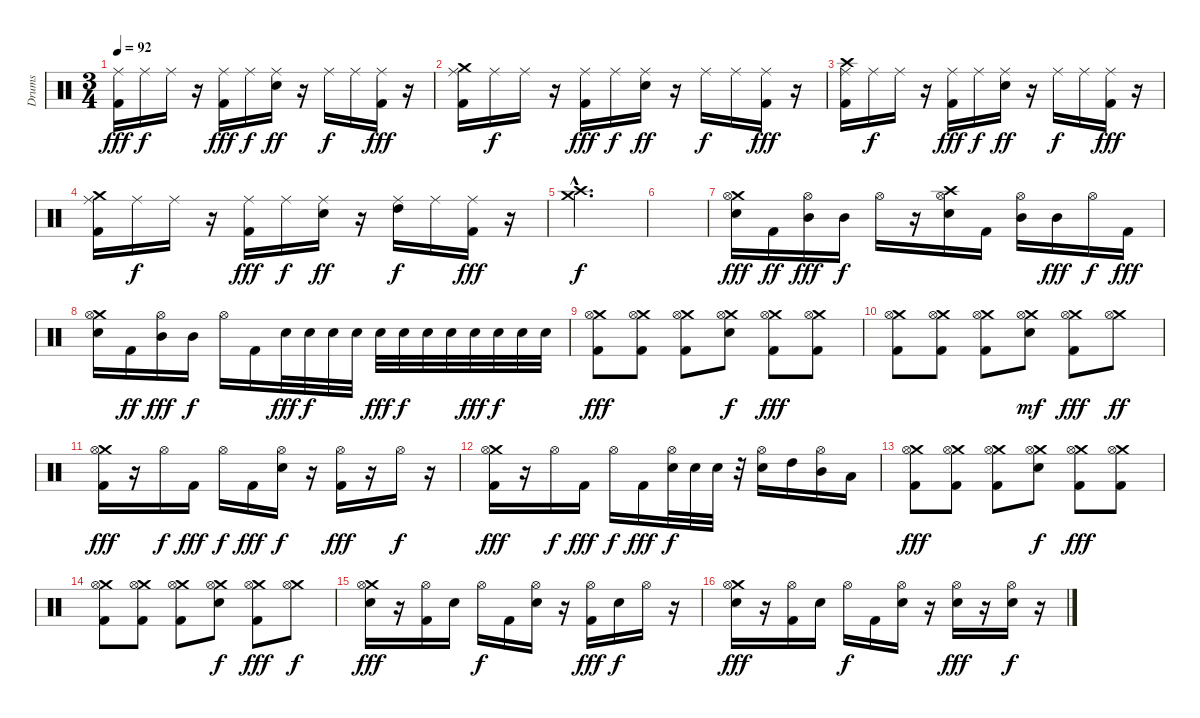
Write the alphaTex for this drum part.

\track ("Drums" "Drums") {instrument percussion}
\staff {score}
\articulation defaults
\ts (3 4)
\tempo 92
\clef neutral
\ks c
("Ride (middle)" "Kick (hit) 2").16{dy fff} "Ride (middle)".16{dy f} "Ride (middle)".16 r.16 ("Ride (middle)" "Kick (hit) 2").16{dy fff} "Ride (middle)".16{dy f} ("Ride (middle)" "Snare (hit) 2").16{dy ff} r.16 "Ride (middle)".16{dy f} "Ride (middle)".16 ("Ride (middle)" "Kick (hit) 2").16{dy fff} r.16 |
("Crash medium (hit)" "Ride (middle)" "Kick (hit) 2").16 "Ride (middle)".16{dy f} "Ride (middle)".16 r.16 ("Ride (middle)" "Kick (hit) 2").16{dy fff} "Ride (middle)".16{dy f} ("Ride (middle)" "Snare (hit) 2").16{dy ff} r.16 "Ride (middle)".16{dy f} "Ride (middle)".16 ("Ride (middle)" "Kick (hit) 2").16{dy fff} r.16 |
("Crash high (hit)" "Ride (middle)" "Kick (hit) 2").16 "Ride (middle)".16{dy f} "Ride (middle)".16 r.16 ("Ride (middle)" "Kick (hit) 2").16{dy fff} "Ride (middle)".16{dy f} ("Ride (middle)" "Snare (hit) 2").16{dy ff} r.16 "Ride (middle)".16{dy f} "Ride (middle)".16 ("Ride (middle)" "Kick (hit) 2").16{dy fff} r.16 |
("Crash medium (hit)" "Ride (middle)" "Kick (hit) 2").16 "Ride (middle)".16{dy f} "Ride (middle)".16 r.16 ("Ride (middle)" "Kick (hit) 2").16{dy fff} "Ride (middle)".16{dy f} ("Ride (middle)" "Snare (hit) 2").16{dy ff} r.16 ("Ride (middle)" "High Tom (hit)").16{dy f} "Ride (middle)".16 ("Ride (middle)" "Kick (hit) 2").16{dy fff} r.16 |
("Crash medium (hit)"{hac} "Crash high (hit)"{hac}).2{d dy f} |
|
("Crash medium (hit)" "Hi-Hat (open)" "Snare (hit) 2").16{dy fff} "Kick (hit) 2".16{dy ff} ("Hi-Hat (open)" "Mid Tom (hit)").16{dy fff} "Mid Tom (hit)".16{dy f} "Hi-Hat (open)".16 r.16 ("Crash high (hit)" "Hi-Hat (open)" "Snare (hit) 2").16 "Kick (hit) 2".16 ("Hi-Hat (open)" "Mid Tom (hit)").16 "Mid Tom (hit)".16{dy fff} "Hi-Hat (open)".16{dy f} "Kick (hit) 2".16{dy fff} |
("Crash medium (hit)" "Hi-Hat (open)" "Snare (hit) 2").16 "Kick (hit) 2".16{dy ff} ("Hi-Hat (open)" "Mid Tom (hit)").16{dy fff} "Mid Tom (hit)".16{dy f} "Hi-Hat (open)".16 "Kick (hit) 2".16 "Snare (hit) 2".32{dy fff} "Snare (hit) 2".32{dy f} "Snare (hit) 2".32 "Snare (hit) 2".32 "Snare (hit) 2".32{dy fff} "Snare (hit) 2".32{dy f} "Snare (hit) 2".32 "Snare (hit) 2".32 "Snare (hit) 2".32{dy fff} "Snare (hit) 2".32{dy f} "Snare (hit) 2".32 "Snare (hit) 2".32 |
("Crash medium (hit)" "Hi-Hat (open)" "Kick (hit) 2").8{dy fff} ("Crash medium (hit)" "Hi-Hat (open)" "Kick (hit) 2").8 ("Crash medium (hit)" "Hi-Hat (open)" "Kick (hit) 2").8 ("Crash medium (hit)" "Hi-Hat (open)" "Snare (hit) 2").8{dy f} ("Crash medium (hit)" "Hi-Hat (open)" "Kick (hit) 2").8{dy fff} ("Crash medium (hit)" "Hi-Hat (open)" "Kick (hit) 2").8 |
("Crash medium (hit)" "Hi-Hat (open)" "Kick (hit) 2").8 ("Crash medium (hit)" "Hi-Hat (open)" "Kick (hit) 2").8 ("Crash medium (hit)" "Hi-Hat (open)" "Kick (hit) 2").8 ("Crash medium (hit)" "Hi-Hat (open)" "Snare (hit) 2").8{dy mf} ("Crash medium (hit)" "Hi-Hat (open)" "Kick (hit) 2").8{dy fff} ("Crash medium (hit)" "Hi-Hat (open)").8{dy ff} |
("Crash medium (hit)" "Hi-Hat (open)" "Kick (hit) 2").16{dy fff} r.16 "Hi-Hat (open)".16{dy f} "Kick (hit) 2".16{dy fff} "Hi-Hat (open)".16{dy f} "Kick (hit) 2".16{dy fff} ("Hi-Hat (open)" "Snare (hit) 2").16{dy f} r.16 ("Hi-Hat (open)" "Kick (hit) 2").16{dy fff} r.16 "Hi-Hat (open)".16{dy f} r.16 |
("Crash medium (hit)" "Hi-Hat (open)" "Kick (hit) 2").16{dy fff} r.16 "Hi-Hat (open)".16{dy f} "Kick (hit) 2".16{dy fff} "Hi-Hat (open)".16{dy f} "Kick (hit) 2".16{dy fff} ("Hi-Hat (open)" "Snare (hit) 2").32{dy f} "Snare (hit) 2".32 "Snare (hit) 2".32 r.32 ("Hi-Hat (open)" "Snare (hit) 2").16 "High Tom (hit)".16 ("Hi-Hat (open)" "Mid Tom (hit)").16 "Low Tom (hit)".16 |
("Crash medium (hit)" "Hi-Hat (open)" "Kick (hit) 2").8{dy fff} ("Crash medium (hit)" "Hi-Hat (open)" "Kick (hit) 2").8 ("Crash medium (hit)" "Hi-Hat (open)" "Kick (hit) 2").8 ("Crash medium (hit)" "Hi-Hat (open)" "Snare (hit) 2").8{dy f} ("Crash medium (hit)" "Hi-Hat (open)" "Kick (hit) 2").8{dy fff} ("Crash medium (hit)" "Hi-Hat (open)" "Kick (hit) 2").8 |
("Crash medium (hit)" "Hi-Hat (open)" "Kick (hit) 2").8 ("Crash medium (hit)" "Hi-Hat (open)" "Kick (hit) 2").8 ("Crash medium (hit)" "Hi-Hat (open)" "Kick (hit) 2").8 ("Crash medium (hit)" "Hi-Hat (open)" "Snare (hit) 2").8{dy f} ("Crash medium (hit)" "Hi-Hat (open)" "Kick (hit) 2").8{dy fff} ("Crash medium (hit)" "Hi-Hat (open)").8{dy f} |
("Crash medium (hit)" "Hi-Hat (open)" "Snare (hit) 2").16{dy fff} r.16 ("Hi-Hat (open)" "Kick (hit) 2").16 "Snare (hit) 2".16 "Hi-Hat (open)".16{dy f} "Kick (hit) 2".16 ("Hi-Hat (open)" "Snare (hit) 2").16 r.16 ("Hi-Hat (open)" "Kick (hit) 2").16{dy fff} "Snare (hit) 2".16{dy f} "Hi-Hat (open)".16 r.16 |
("Crash medium (hit)" "Hi-Hat (open)" "Snare (hit) 2").16{dy fff} r.16 ("Hi-Hat (open)" "Kick (hit) 2").16 "Snare (hit) 2".16 "Hi-Hat (open)".16{dy f} "Kick (hit) 2".16 ("Hi-Hat (open)" "Snare (hit) 2").16 r.16 ("Hi-Hat (open)" "Snare (hit) 2").16{dy fff} r.16 ("Hi-Hat (open)" "Snare (hit) 2").16{dy f} r.16
